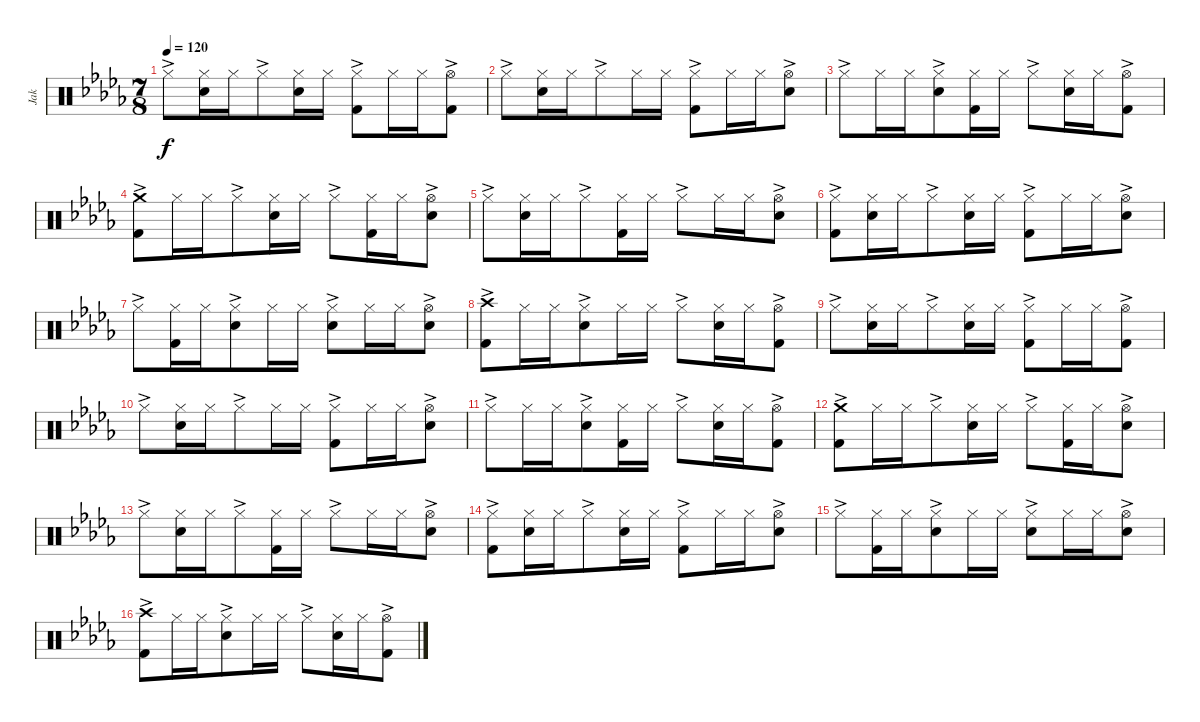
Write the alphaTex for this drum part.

\track ("Jak" "Jak") {instrument percussion}
\staff {score}
\articulation defaults
\ts (7 8)
\tempo 120
\clef neutral
\ks bbminor "Hi-Hat (closed)"{ac}.8{dy f}
("Hi-Hat (closed)" "Snare (hit) 2").16 "Hi-Hat (closed)".16 "Hi-Hat (closed)"{ac}.8 ("Hi-Hat (closed)" "Snare (hit) 2").16 "Hi-Hat (closed)".16 ("Hi-Hat (closed)"{ac} "Kick (hit) 2").8 "Hi-Hat (closed)".16 "Hi-Hat (closed)".16 ("Hi-Hat (open)"{ac} "Kick (hit) 2").8 |
"Hi-Hat (closed)"{ac}.8 ("Hi-Hat (closed)" "Snare (hit) 2").16 "Hi-Hat (closed)".16 "Hi-Hat (closed)"{ac}.8 "Hi-Hat (closed)".16 "Hi-Hat (closed)".16 ("Hi-Hat (closed)"{ac} "Kick (hit) 2").8 "Hi-Hat (closed)".16 "Hi-Hat (closed)".16 ("Hi-Hat (open)"{ac} "Snare (hit) 2").8 |
"Hi-Hat (closed)"{ac}.8 "Hi-Hat (closed)".16 "Hi-Hat (closed)".16 ("Hi-Hat (closed)"{ac} "Snare (hit) 2").8 ("Hi-Hat (closed)" "Kick (hit) 2").16 "Hi-Hat (closed)".16 "Hi-Hat (closed)"{ac}.8 ("Hi-Hat (closed)" "Snare (hit) 2").16 "Hi-Hat (closed)".16 ("Hi-Hat (open)"{ac} "Kick (hit) 2").8 |
("Crash medium (hit)"{ac} "Kick (hit) 2").8 "Hi-Hat (closed)".16 "Hi-Hat (closed)".16 "Hi-Hat (closed)"{ac}.8 ("Hi-Hat (closed)" "Snare (hit) 2").16 "Hi-Hat (closed)".16 "Hi-Hat (closed)"{ac}.8 ("Hi-Hat (closed)" "Kick (hit) 2").16 "Hi-Hat (closed)".16 ("Hi-Hat (open)"{ac} "Snare (hit) 2").8 |
"Hi-Hat (closed)"{ac}.8 ("Hi-Hat (closed)" "Snare (hit) 2").16 "Hi-Hat (closed)".16 "Hi-Hat (closed)"{ac}.8 ("Hi-Hat (closed)" "Kick (hit) 2").16 "Hi-Hat (closed)".16 "Hi-Hat (closed)"{ac}.8 "Hi-Hat (closed)".16 "Hi-Hat (closed)".16 ("Hi-Hat (open)"{ac} "Snare (hit) 2").8 |
("Hi-Hat (closed)"{ac} "Kick (hit) 2").8 ("Hi-Hat (closed)" "Snare (hit) 2").16 "Hi-Hat (closed)".16 "Hi-Hat (closed)"{ac}.8 ("Hi-Hat (closed)" "Snare (hit) 2").16 "Hi-Hat (closed)".16 ("Hi-Hat (closed)"{ac} "Kick (hit) 2").8 "Hi-Hat (closed)".16 "Hi-Hat (closed)".16 ("Hi-Hat (open)"{ac} "Snare (hit) 2").8 |
"Hi-Hat (closed)"{ac}.8 ("Hi-Hat (closed)" "Kick (hit) 2").16 "Hi-Hat (closed)".16 ("Hi-Hat (closed)"{ac} "Snare (hit) 2").8 "Hi-Hat (closed)".16 "Hi-Hat (closed)".16 ("Hi-Hat (closed)"{ac} "Snare (hit) 2").8 "Hi-Hat (closed)".16 "Hi-Hat (closed)".16 ("Hi-Hat (open)"{ac} "Snare (hit) 2").8 |
("Crash high (hit)"{ac} "Kick (hit) 2").8 "Hi-Hat (closed)".16 "Hi-Hat (closed)".16 ("Hi-Hat (closed)"{ac} "Snare (hit) 2").8 "Hi-Hat (closed)".16 "Hi-Hat (closed)".16 "Hi-Hat (closed)"{ac}.8 ("Hi-Hat (closed)" "Snare (hit) 2").16 "Hi-Hat (closed)".16 ("Hi-Hat (open)"{ac} "Kick (hit) 2").8 |
"Hi-Hat (closed)"{ac}.8 ("Hi-Hat (closed)" "Snare (hit) 2").16 "Hi-Hat (closed)".16 "Hi-Hat (closed)"{ac}.8 ("Hi-Hat (closed)" "Snare (hit) 2").16 "Hi-Hat (closed)".16 ("Hi-Hat (closed)"{ac} "Kick (hit) 2").8 "Hi-Hat (closed)".16 "Hi-Hat (closed)".16 ("Hi-Hat (open)"{ac} "Kick (hit) 2").8 |
"Hi-Hat (closed)"{ac}.8 ("Hi-Hat (closed)" "Snare (hit) 2").16 "Hi-Hat (closed)".16 "Hi-Hat (closed)"{ac}.8 "Hi-Hat (closed)".16 "Hi-Hat (closed)".16 ("Hi-Hat (closed)"{ac} "Kick (hit) 2").8 "Hi-Hat (closed)".16 "Hi-Hat (closed)".16 ("Hi-Hat (open)"{ac} "Snare (hit) 2").8 |
"Hi-Hat (closed)"{ac}.8 "Hi-Hat (closed)".16 "Hi-Hat (closed)".16 ("Hi-Hat (closed)"{ac} "Snare (hit) 2").8 ("Hi-Hat (closed)" "Kick (hit) 2").16 "Hi-Hat (closed)".16 "Hi-Hat (closed)"{ac}.8 ("Hi-Hat (closed)" "Snare (hit) 2").16 "Hi-Hat (closed)".16 ("Hi-Hat (open)"{ac} "Kick (hit) 2").8 |
("Crash medium (hit)"{ac} "Kick (hit) 2").8 "Hi-Hat (closed)".16 "Hi-Hat (closed)".16 "Hi-Hat (closed)"{ac}.8 ("Hi-Hat (closed)" "Snare (hit) 2").16 "Hi-Hat (closed)".16 "Hi-Hat (closed)"{ac}.8 ("Hi-Hat (closed)" "Kick (hit) 2").16 "Hi-Hat (closed)".16 ("Hi-Hat (open)"{ac} "Snare (hit) 2").8 |
"Hi-Hat (closed)"{ac}.8 ("Hi-Hat (closed)" "Snare (hit) 2").16 "Hi-Hat (closed)".16 "Hi-Hat (closed)"{ac}.8 ("Hi-Hat (closed)" "Kick (hit) 2").16 "Hi-Hat (closed)".16 "Hi-Hat (closed)"{ac}.8 "Hi-Hat (closed)".16 "Hi-Hat (closed)".16 ("Hi-Hat (open)"{ac} "Snare (hit) 2").8 |
("Hi-Hat (closed)"{ac} "Kick (hit) 2").8 ("Hi-Hat (closed)" "Snare (hit) 2").16 "Hi-Hat (closed)".16 "Hi-Hat (closed)"{ac}.8 ("Hi-Hat (closed)" "Snare (hit) 2").16 "Hi-Hat (closed)".16 ("Hi-Hat (closed)"{ac} "Kick (hit) 2").8 "Hi-Hat (closed)".16 "Hi-Hat (closed)".16 ("Hi-Hat (open)"{ac} "Snare (hit) 2").8 |
"Hi-Hat (closed)"{ac}.8 ("Hi-Hat (closed)" "Kick (hit) 2").16 "Hi-Hat (closed)".16 ("Hi-Hat (closed)"{ac} "Snare (hit) 2").8 "Hi-Hat (closed)".16 "Hi-Hat (closed)".16 ("Hi-Hat (closed)"{ac} "Snare (hit) 2").8 "Hi-Hat (closed)".16 "Hi-Hat (closed)".16 ("Hi-Hat (open)"{ac} "Snare (hit) 2").8 |
("Crash high (hit)"{ac} "Kick (hit) 2").8 "Hi-Hat (closed)".16 "Hi-Hat (closed)".16 ("Hi-Hat (closed)"{ac} "Snare (hit) 2").8 "Hi-Hat (closed)".16 "Hi-Hat (closed)".16 "Hi-Hat (closed)"{ac}.8 ("Hi-Hat (closed)" "Snare (hit) 2").16 "Hi-Hat (closed)".16 ("Hi-Hat (open)"{ac} "Kick (hit) 2").8
